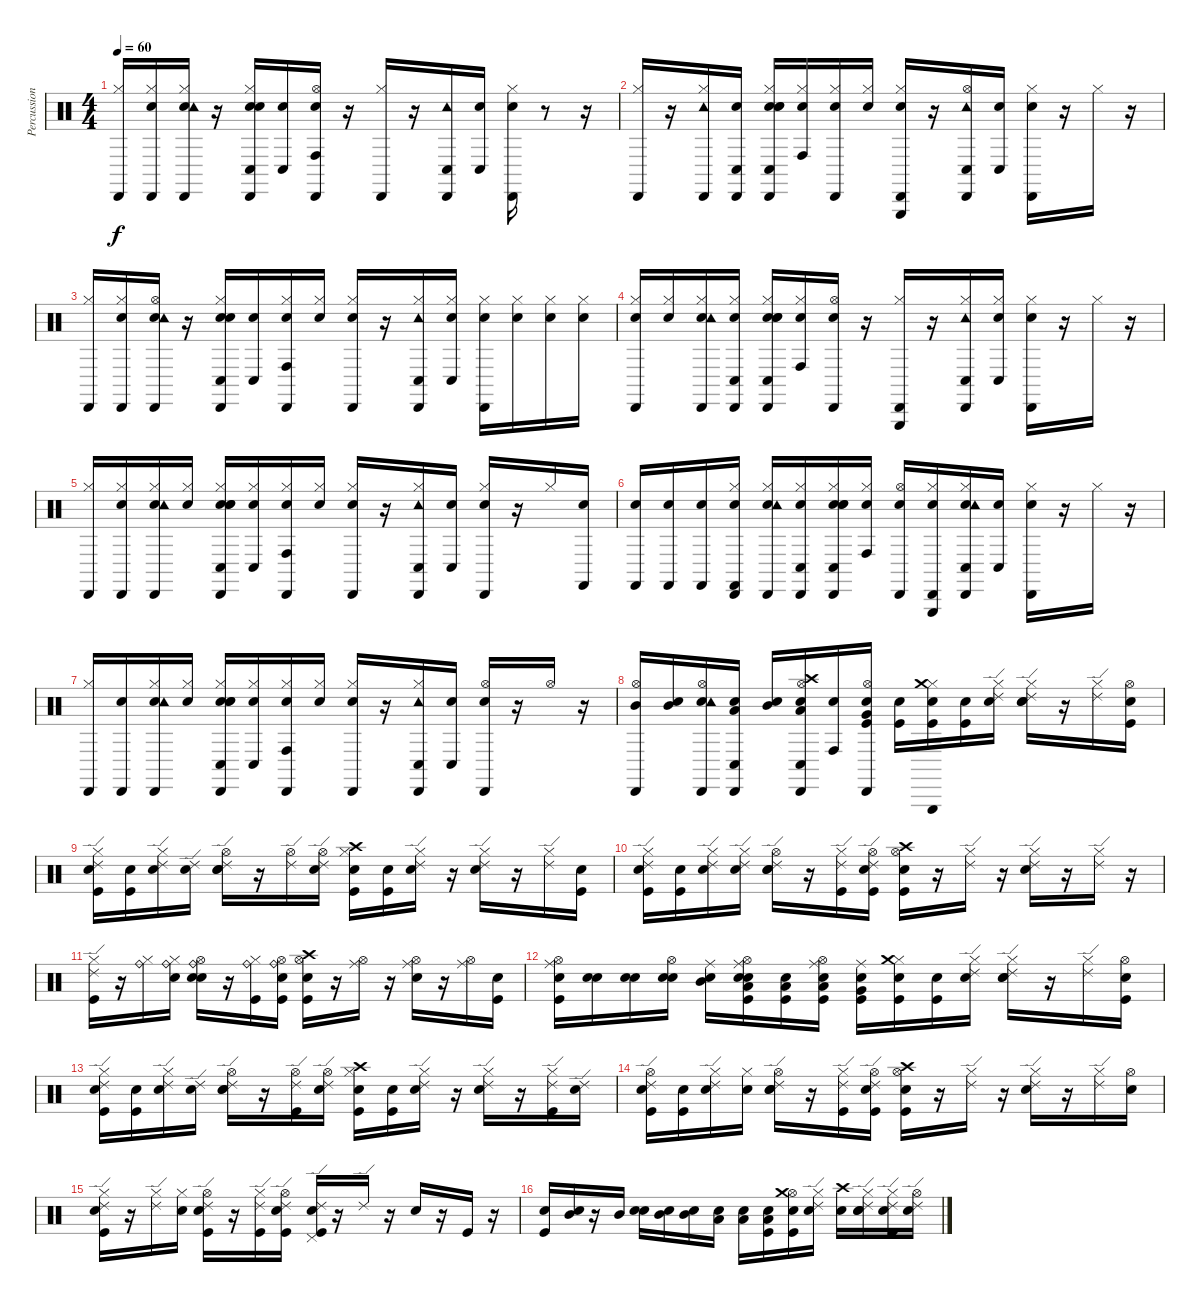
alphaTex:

\track ("Percussions" "Percussion") {instrument percussion}
\staff {score}
\articulation defaults
\ts (4 4)
\tempo 60
\clef neutral
\ks c
("Hi-Hat (closed)" "Cabasa (hit)").16{dy f} ("Snare (hit)" "Hi-Hat (closed)" "Cabasa (hit)").16 ("Snare (hit)" "Hi-Hat (closed)" "Tambourine (hit)" "Cabasa (hit)").16 r.16 ("Snare (hit) 2" "Electric Snare (hit)" "Hi-Hat (closed)" "Conga low (hit)" "Cabasa (hit)").16 ("Snare (hit)" "Conga low (hit)").16 ("Snare (hit)" "Hi-Hat (open)" "Conga high (hit)" "Cabasa (hit)").16 r.16 ("Hi-Hat (closed)" "Cabasa (hit)").16 r.16 ("Tambourine (hit)" "Conga low (hit)" "Cabasa (hit)").16 ("Snare (hit)" "Conga low (hit)").16 ("Snare (hit)" "Hi-Hat (closed)" "Cabasa (hit)").16 r.8 r.16 |
("Hi-Hat (closed)" "Cabasa (hit)").16 r.16 ("Hi-Hat (closed)" "Tambourine (hit)" "Cabasa (hit)").16 ("Snare (hit)" "Conga low (hit)" "Cabasa (hit)").16 ("Snare (hit)" "Snare (hit) 2" "Electric Snare (hit)" "Hi-Hat (closed)" "Conga low (hit)" "Cabasa (hit)").16 ("Snare (hit)" "Hi-Hat (closed)" "Conga high (hit)").16 ("Snare (hit)" "Hi-Hat (closed)" "Cabasa (hit)").16 ("Snare (hit)" "Hi-Hat (closed)").16 ("Snare (hit)" "Hi-Hat (closed)" "Triangle (hit)" "Cabasa (hit)").16 r.16 ("Hi-Hat (open)" "Tambourine (hit)" "Conga low (hit)" "Cabasa (hit)").16 ("Snare (hit)" "Conga low (hit)").16 ("Snare (hit)" "Hi-Hat (closed)" "Cabasa (hit)").16 r.16 "Hi-Hat (closed)".16 r.16 |
("Hi-Hat (closed)" "Cabasa (hit)").16 ("Snare (hit)" "Hi-Hat (closed)" "Cabasa (hit)").16 ("Snare (hit)" "Hi-Hat (open)" "Tambourine (hit)" "Cabasa (hit)").16 r.16 ("Snare (hit) 2" "Electric Snare (hit)" "Hi-Hat (closed)" "Conga low (hit)" "Cabasa (hit)").16 ("Snare (hit)" "Conga low (hit)").16 ("Snare (hit)" "Hi-Hat (closed)" "Conga high (hit)" "Cabasa (hit)").16 ("Snare (hit)" "Hi-Hat (closed)").16 ("Snare (hit)" "Hi-Hat (closed)" "Cabasa (hit)").16 r.16 ("Hi-Hat (closed)" "Tambourine (hit)" "Conga low (hit)" "Cabasa (hit)").16 ("Snare (hit)" "Hi-Hat (closed)" "Conga low (hit)").16 ("Snare (hit)" "Hi-Hat (closed)" "Cabasa (hit)").16 ("Snare (hit)" "Hi-Hat (closed)").16 ("Snare (hit)" "Hi-Hat (closed)").16 ("Snare (hit)" "Hi-Hat (closed)").16 |
("Snare (hit)" "Hi-Hat (closed)" "Cabasa (hit)").16 ("Snare (hit)" "Hi-Hat (closed)").16 ("Snare (hit)" "Hi-Hat (closed)" "Tambourine (hit)" "Cabasa (hit)").16 ("Snare (hit)" "Hi-Hat (closed)" "Conga low (hit)" "Cabasa (hit)").16 ("Snare (hit)" "Snare (hit) 2" "Electric Snare (hit)" "Hi-Hat (closed)" "Conga low (hit)" "Cabasa (hit)").16 ("Snare (hit)" "Hi-Hat (closed)" "Conga high (hit)").16 ("Snare (hit)" "Hi-Hat (open)" "Cabasa (hit)").16 r.16 ("Hi-Hat (closed)" "Triangle (hit)" "Cabasa (hit)").16 r.16 ("Hi-Hat (closed)" "Tambourine (hit)" "Conga low (hit)" "Cabasa (hit)").16 ("Snare (hit)" "Hi-Hat (closed)" "Conga low (hit)").16 ("Snare (hit)" "Hi-Hat (closed)" "Cabasa (hit)").16 r.16 "Hi-Hat (closed)".16 r.16 |
("Hi-Hat (closed)" "Cabasa (hit)").16 ("Snare (hit)" "Hi-Hat (closed)" "Cabasa (hit)").16 ("Snare (hit)" "Hi-Hat (closed)" "Tambourine (hit)" "Cabasa (hit)").16 ("Snare (hit)" "Hi-Hat (closed)").16 ("Snare (hit)" "Snare (hit) 2" "Electric Snare (hit)" "Hi-Hat (closed)" "Conga low (hit)" "Cabasa (hit)").16 ("Snare (hit)" "Hi-Hat (closed)" "Conga low (hit)").16 ("Snare (hit)" "Hi-Hat (closed)" "Conga high (hit)" "Cabasa (hit)").16 ("Snare (hit)" "Hi-Hat (closed)").16 ("Snare (hit)" "Hi-Hat (closed)" "Cabasa (hit)").16 r.16 ("Hi-Hat (closed)" "Tambourine (hit)" "Conga low (hit)" "Cabasa (hit)").16 ("Snare (hit)" "Conga low (hit)").16 ("Snare (hit)" "Hi-Hat (closed)" "Cabasa (hit)").16 r.16 "Hi-Hat (closed)".16 ("Snare (hit)" "Castanets (hit)").16 |
("Snare (hit)" "Castanets (hit)").16 ("Snare (hit)" "Castanets (hit)").16 ("Snare (hit)" "Castanets (hit)").16 ("Snare (hit)" "Hi-Hat (closed)" "Castanets (hit)" "Cabasa (hit)").16 ("Snare (hit)" "Hi-Hat (closed)" "Tambourine (hit)" "Cabasa (hit)").16 ("Snare (hit)" "Hi-Hat (closed)" "Conga low (hit)" "Cabasa (hit)").16 ("Snare (hit)" "Snare (hit) 2" "Electric Snare (hit)" "Hi-Hat (closed)" "Conga low (hit)" "Cabasa (hit)").16 ("Snare (hit)" "Hi-Hat (closed)" "Conga high (hit)").16 ("Snare (hit)" "Hi-Hat (open)" "Cabasa (hit)").16 ("Snare (hit)" "Hi-Hat (closed)" "Triangle (hit)" "Cabasa (hit)").16 ("Snare (hit)" "Hi-Hat (closed)" "Tambourine (hit)" "Conga low (hit)" "Cabasa (hit)").16 ("Snare (hit)" "Conga low (hit)").16 ("Snare (hit)" "Hi-Hat (closed)" "Cabasa (hit)").16 r.16 "Hi-Hat (closed)".16 r.16 |
("Hi-Hat (closed)" "Cabasa (hit)").16 ("Snare (hit)" "Cabasa (hit)").16 ("Snare (hit)" "Hi-Hat (closed)" "Tambourine (hit)" "Cabasa (hit)").16 ("Snare (hit)" "Hi-Hat (closed)").16 ("Snare (hit)" "Snare (hit) 2" "Electric Snare (hit)" "Hi-Hat (closed)" "Conga low (hit)" "Cabasa (hit)").16 ("Snare (hit)" "Hi-Hat (closed)" "Conga low (hit)").16 ("Snare (hit)" "Hi-Hat (closed)" "Conga high (hit)" "Cabasa (hit)").16 ("Snare (hit)" "Hi-Hat (closed)").16 ("Snare (hit)" "Hi-Hat (closed)" "Cabasa (hit)").16 r.16 ("Hi-Hat (closed)" "Tambourine (hit)" "Conga low (hit)" "Cabasa (hit)").16 ("Snare (hit)" "Conga low (hit)").16 ("Snare (hit)" "Hi-Hat (open)" "Cabasa (hit)").16 r.16 "Hi-Hat (open)".16 r.16 |
("Hi-Hat (open)" "Mid Tom (hit)" "Cabasa (hit)").16 ("Snare (hit)" "Mid Tom (hit)").16 ("Snare (hit)" "Hi-Hat (open)" "Tambourine (hit)" "Cabasa (hit)").16 ("Snare (hit)" "Low Tom (hit)" "Conga low (hit)" "Cabasa (hit)").16 ("Snare (hit)" "Mid Tom (hit)").16 ("Snare (hit)" "Low Tom (hit)" "Hi-Hat (open)" "Crash high (hit)" "Conga low (hit)" "Cabasa (hit)").16 ("Snare (hit)" "Conga high (hit)").16 ("Snare (hit)" "Kick (hit)" "Very Low Tom (hit)" "Hi-Hat (open)" "Cabasa (hit)").16 ("Snare (hit)" "Kick (hit)").16 ("Snare (hit)" "Kick (hit)" "Hi-Hat (closed)" "Crash medium (hit)" "Triangle (hit)").16 ("Snare (hit)" "Kick (hit)").16 ("Snare (hit)" "Hi-Hat (closed)" "Ride (edge) 2").16 ("Snare (hit)" "Electric Snare (hit)" "Hi-Hat (closed)" "Ride (edge) 2").16 r.16 ("Hi-Hat (closed)" "Ride (edge) 2").16 ("Snare (hit)" "Kick (hit)" "Hi-Hat (open)").16 |
("Snare (hit)" "Kick (hit)" "Hi-Hat (closed)" "Ride (edge) 2").16 ("Snare (hit)" "Kick (hit)").16 ("Snare (hit)" "Hi-Hat (closed)" "Ride (edge) 2").16 ("Snare (hit)" "Ride (edge) 2").16 ("Snare (hit)" "Electric Snare (hit)" "Hi-Hat (open)" "Ride (edge) 2").16 r.16 ("Hi-Hat (open)" "Ride (edge) 2").16 ("Snare (hit)" "Hi-Hat (open)" "Ride (edge) 2").16 ("Snare (hit)" "Kick (hit)" "Hi-Hat (closed)" "Crash high (hit)").16 ("Snare (hit)" "Kick (hit)").16 ("Snare (hit)" "Hi-Hat (closed)" "Ride (edge) 2").16 r.16 ("Electric Snare (hit)" "Hi-Hat (closed)" "Ride (edge) 2").16 r.16 ("Hi-Hat (closed)" "Ride (edge) 2").16 ("Snare (hit)" "Kick (hit)").16 |
("Snare (hit)" "Kick (hit)" "Hi-Hat (closed)" "Ride (edge) 2").16 ("Snare (hit)" "Kick (hit)").16 ("Snare (hit)" "Hi-Hat (closed)" "Ride (edge) 2").16 ("Snare (hit)" "Hi-Hat (closed)" "Ride (edge) 2").16 ("Snare (hit)" "Electric Snare (hit)" "Hi-Hat (open)" "Ride (edge) 2").16 r.16 ("Kick (hit)" "Hi-Hat (closed)" "Ride (edge) 2").16 ("Snare (hit)" "Kick (hit)" "Hi-Hat (open)" "Ride (edge) 2").16 ("Snare (hit)" "Kick (hit)" "Hi-Hat (open)" "Crash high (hit)").16 r.16 ("Hi-Hat (closed)" "Ride (edge) 2").16 r.16 ("Electric Snare (hit)" "Hi-Hat (closed)" "Ride (edge) 2").16 r.16 ("Hi-Hat (closed)" "Ride (edge) 2").16 r.16 |
("Kick (hit)" "Hi-Hat (closed)" "Ride (edge) 2").16 r.16 ("Hi-Hat (closed)" "Ride (bell)").16 ("Snare (hit)" "Hi-Hat (closed)" "Ride (bell)").16 ("Snare (hit)" "Electric Snare (hit)" "Hi-Hat (open)" "Ride (bell)").16 r.16 ("Kick (hit)" "Hi-Hat (closed)" "Ride (bell)").16 ("Snare (hit)" "Kick (hit)" "Hi-Hat (open)" "Ride (bell)").16 ("Snare (hit)" "Kick (hit)" "Hi-Hat (open)" "Crash high (hit)").16 r.16 ("Hi-Hat (open)" "Ride (middle)").16 r.16 ("Electric Snare (hit)" "Hi-Hat (open)" "Ride (middle)").16 r.16 ("Hi-Hat (open)" "Ride (middle)").16 ("Snare (hit)" "Kick (hit)").16 |
("Snare (hit)" "Kick (hit)" "Hi-Hat (open)" "Ride (middle)").16 ("Snare (hit)" "Electric Snare (hit)").16 ("Snare (hit)" "Electric Snare (hit)").16 ("Snare (hit)" "Electric Snare (hit)" "Hi-Hat (open)").16 ("Snare (hit)" "Mid Tom (hit)" "Ride (middle)").16 ("Snare (hit)" "Kick (hit)" "Electric Snare (hit)" "Low Tom (hit)" "Hi-Hat (open)" "Ride (middle)").16 ("Snare (hit)" "Kick (hit)" "Low Tom (hit)").16 ("Snare (hit)" "Kick (hit)" "Low Tom (hit)" "Hi-Hat (open)" "Ride (middle)").16 ("Snare (hit)" "Kick (hit)" "Very Low Tom (hit)" "Ride (middle)").16 ("Snare (hit)" "Kick (hit)" "Hi-Hat (closed)" "Crash medium (hit)").16 ("Snare (hit)" "Kick (hit)").16 ("Snare (hit)" "Hi-Hat (closed)" "Ride (edge) 2").16 ("Snare (hit)" "Electric Snare (hit)" "Hi-Hat (closed)" "Ride (edge) 2").16 r.16 ("Hi-Hat (closed)" "Ride (edge) 2").16 ("Snare (hit)" "Kick (hit)" "Hi-Hat (open)").16 |
("Snare (hit)" "Kick (hit)" "Hi-Hat (closed)" "Ride (edge) 2").16 ("Snare (hit)" "Kick (hit)").16 ("Snare (hit)" "Hi-Hat (closed)" "Ride (edge) 2").16 ("Snare (hit)" "Ride (edge) 2").16 ("Snare (hit)" "Electric Snare (hit)" "Hi-Hat (open)" "Ride (edge) 2").16 r.16 ("Kick (hit)" "Hi-Hat (open)" "Ride (edge) 2").16 ("Snare (hit)" "Hi-Hat (open)" "Ride (edge) 2").16 ("Snare (hit)" "Kick (hit)" "Hi-Hat (closed)" "Crash high (hit)").16 ("Snare (hit)" "Kick (hit)").16 ("Snare (hit)" "Hi-Hat (closed)" "Ride (edge) 2").16 r.16 ("Electric Snare (hit)" "Hi-Hat (closed)" "Ride (edge) 2").16 r.16 ("Kick (hit)" "Hi-Hat (closed)" "Ride (edge) 2").16 ("Snare (hit)" "Ride (edge) 2").16 |
("Snare (hit)" "Kick (hit)" "Hi-Hat (open)" "Ride (edge) 2").16 ("Snare (hit)" "Kick (hit)").16 ("Snare (hit)" "Hi-Hat (closed)" "Ride (edge) 2").16 ("Snare (hit)" "Hi-Hat (closed)").16 ("Snare (hit)" "Electric Snare (hit)" "Hi-Hat (open)" "Ride (edge) 2").16 r.16 ("Kick (hit)" "Hi-Hat (closed)" "Ride (edge) 2").16 ("Snare (hit)" "Kick (hit)" "Hi-Hat (open)" "Ride (edge) 2").16 ("Snare (hit)" "Kick (hit)" "Hi-Hat (open)" "Crash high (hit)").16 r.16 ("Hi-Hat (closed)" "Ride (edge) 2").16 r.16 ("Electric Snare (hit)" "Hi-Hat (closed)" "Ride (edge) 2").16 r.16 ("Hi-Hat (closed)" "Ride (edge) 2").16 ("Snare (hit)" "Hi-Hat (open)").16 |
("Snare (hit)" "Kick (hit)" "Hi-Hat (closed)" "Ride (edge) 2").16 r.16 ("Hi-Hat (closed)" "Ride (edge) 2").16 ("Snare (hit)" "Hi-Hat (closed)").16 ("Snare (hit)" "Kick (hit)" "Hi-Hat (open)" "Ride (edge) 2").16 r.16 ("Kick (hit)" "Hi-Hat (closed)" "Ride (edge) 2").16 ("Snare (hit)" "Kick (hit)" "Hi-Hat (open)" "Ride (edge) 2").16 ("Snare (hit)" "Kick (hit)" "Pedal Hi-Hat (hit)" "Ride (edge) 2").16 r.16 "Ride (edge) 2".16 r.16 "Electric Snare (hit)".16 r.16 "Kick (hit)".16 r.16 |
("Kick (hit)" "Electric Snare (hit)").16 ("Snare (hit)" "Mid Tom (hit)").16 r.16 "Mid Tom (hit)".16 ("Snare (hit)" "Electric Snare (hit)").16 ("Snare (hit)" "Mid Tom (hit)").16 ("Snare (hit)" "Mid Tom (hit)").16 ("Snare (hit)" "Low Tom (hit)").16 ("Snare (hit)" "Low Tom (hit)").16 ("Snare (hit)" "Kick (hit)" "Low Tom (hit)").16 ("Snare (hit)" "Kick (hit)" "Hi-Hat (open)" "Crash medium (hit)").16 ("Snare (hit)" "Hi-Hat (closed)" "Ride (edge) 2").16 ("Snare (hit)" "Crash high (hit)").16 ("Snare (hit)" "Electric Snare (hit)" "Hi-Hat (closed)" "Ride (edge) 2").16 ("Snare (hit)" "Kick (hit)" "Hi-Hat (closed)" "Ride (edge) 2").16 ("Snare (hit)" "Hi-Hat (open)" "Ride (edge) 2").16
